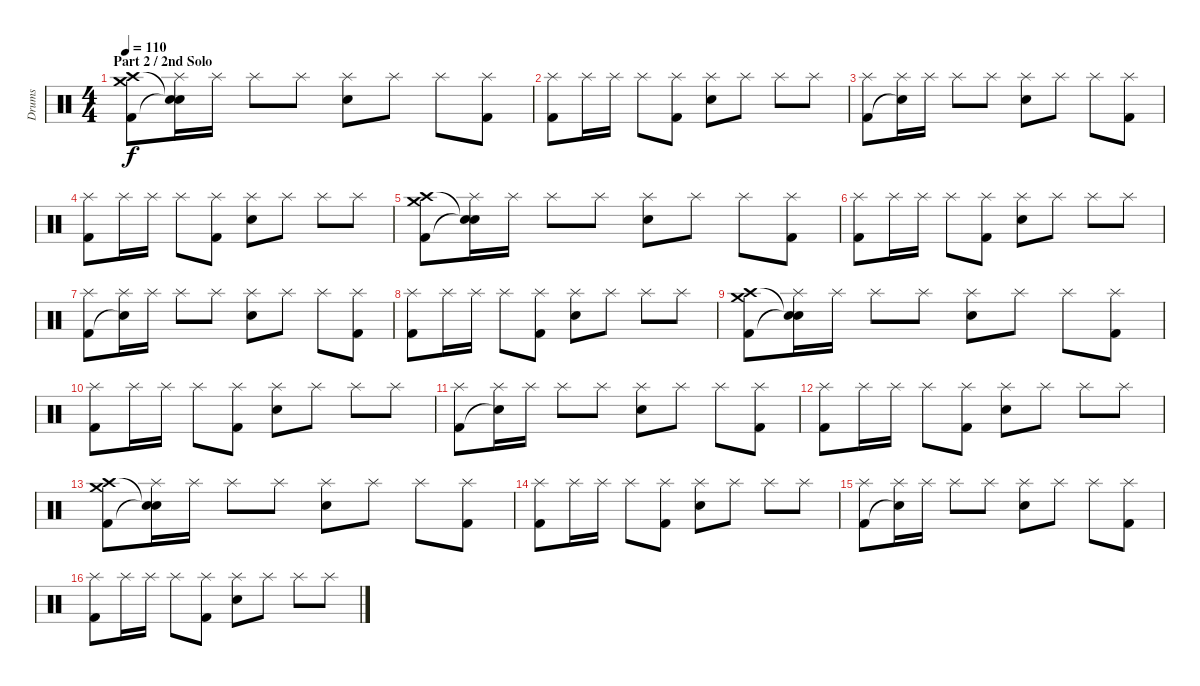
\track ("Drums" "Drums") {instrument percussion}
\staff {score}
\articulation defaults
\ts (4 4)
\section ("" "Part 2 / 2nd Solo")
\tempo 110
\clef neutral
\ks c
("Crash medium (hit)" "Crash high (hit)" "Kick (hit) 2").8{dy f} ("Splash (hit)" "Snare (hit)"{t} "Snare (hit)"{t}).16 "Splash (hit)".16 "Splash (hit)".8 "Splash (hit)".8 ("Splash (hit)" "Snare (hit) 2").8 "Splash (hit)".8 "Splash (hit)".8 ("Splash (hit)" "Kick (hit) 2").8 |
("Splash (hit)" "Kick (hit) 2").8 "Splash (hit)".16 "Splash (hit)".16 "Splash (hit)".8 ("Splash (hit)" "Kick (hit) 2").8 ("Splash (hit)" "Snare (hit) 2").8 "Splash (hit)".8 "Splash (hit)".8 "Splash (hit)".8 |
("Splash (hit)" "Kick (hit) 2").8 ("Splash (hit)" "Snare (hit)"{t}).16 "Splash (hit)".16 "Splash (hit)".8 "Splash (hit)".8 ("Splash (hit)" "Snare (hit) 2").8 "Splash (hit)".8 "Splash (hit)".8 ("Splash (hit)" "Kick (hit) 2").8 |
("Splash (hit)" "Kick (hit) 2").8 "Splash (hit)".16 "Splash (hit)".16 "Splash (hit)".8 ("Splash (hit)" "Kick (hit) 2").8 ("Splash (hit)" "Snare (hit) 2").8 "Splash (hit)".8 "Splash (hit)".8 "Splash (hit)".8 |
("Crash medium (hit)" "Crash high (hit)" "Kick (hit) 2").8 ("Splash (hit)" "Snare (hit)"{t} "Snare (hit)"{t}).16 "Splash (hit)".16 "Splash (hit)".8 "Splash (hit)".8 ("Splash (hit)" "Snare (hit) 2").8 "Splash (hit)".8 "Splash (hit)".8 ("Splash (hit)" "Kick (hit) 2").8 |
("Splash (hit)" "Kick (hit) 2").8 "Splash (hit)".16 "Splash (hit)".16 "Splash (hit)".8 ("Splash (hit)" "Kick (hit) 2").8 ("Splash (hit)" "Snare (hit) 2").8 "Splash (hit)".8 "Splash (hit)".8 "Splash (hit)".8 |
("Splash (hit)" "Kick (hit) 2").8 ("Splash (hit)" "Snare (hit)"{t}).16 "Splash (hit)".16 "Splash (hit)".8 "Splash (hit)".8 ("Splash (hit)" "Snare (hit) 2").8 "Splash (hit)".8 "Splash (hit)".8 ("Splash (hit)" "Kick (hit) 2").8 |
("Splash (hit)" "Kick (hit) 2").8 "Splash (hit)".16 "Splash (hit)".16 "Splash (hit)".8 ("Splash (hit)" "Kick (hit) 2").8 ("Splash (hit)" "Snare (hit) 2").8 "Splash (hit)".8 "Splash (hit)".8 "Splash (hit)".8 |
("Crash medium (hit)" "Crash high (hit)" "Kick (hit) 2").8 ("Splash (hit)" "Snare (hit)"{t} "Snare (hit)"{t}).16 "Splash (hit)".16 "Splash (hit)".8 "Splash (hit)".8 ("Splash (hit)" "Snare (hit) 2").8 "Splash (hit)".8 "Splash (hit)".8 ("Splash (hit)" "Kick (hit) 2").8 |
("Splash (hit)" "Kick (hit) 2").8 "Splash (hit)".16 "Splash (hit)".16 "Splash (hit)".8 ("Splash (hit)" "Kick (hit) 2").8 ("Splash (hit)" "Snare (hit) 2").8 "Splash (hit)".8 "Splash (hit)".8 "Splash (hit)".8 |
("Splash (hit)" "Kick (hit) 2").8 ("Splash (hit)" "Snare (hit)"{t}).16 "Splash (hit)".16 "Splash (hit)".8 "Splash (hit)".8 ("Splash (hit)" "Snare (hit) 2").8 "Splash (hit)".8 "Splash (hit)".8 ("Splash (hit)" "Kick (hit) 2").8 |
("Splash (hit)" "Kick (hit) 2").8 "Splash (hit)".16 "Splash (hit)".16 "Splash (hit)".8 ("Splash (hit)" "Kick (hit) 2").8 ("Splash (hit)" "Snare (hit) 2").8 "Splash (hit)".8 "Splash (hit)".8 "Splash (hit)".8 |
("Crash medium (hit)" "Crash high (hit)" "Kick (hit) 2").8 ("Splash (hit)" "Snare (hit)"{t} "Snare (hit)"{t}).16 "Splash (hit)".16 "Splash (hit)".8 "Splash (hit)".8 ("Splash (hit)" "Snare (hit) 2").8 "Splash (hit)".8 "Splash (hit)".8 ("Splash (hit)" "Kick (hit) 2").8 |
("Splash (hit)" "Kick (hit) 2").8 "Splash (hit)".16 "Splash (hit)".16 "Splash (hit)".8 ("Splash (hit)" "Kick (hit) 2").8 ("Splash (hit)" "Snare (hit) 2").8 "Splash (hit)".8 "Splash (hit)".8 "Splash (hit)".8 |
("Splash (hit)" "Kick (hit) 2").8 ("Splash (hit)" "Snare (hit)"{t}).16 "Splash (hit)".16 "Splash (hit)".8 "Splash (hit)".8 ("Splash (hit)" "Snare (hit) 2").8 "Splash (hit)".8 "Splash (hit)".8 ("Splash (hit)" "Kick (hit) 2").8 |
("Splash (hit)" "Kick (hit) 2").8 "Splash (hit)".16 "Splash (hit)".16 "Splash (hit)".8 ("Splash (hit)" "Kick (hit) 2").8 ("Splash (hit)" "Snare (hit) 2").8 "Splash (hit)".8 "Splash (hit)".8 "Splash (hit)".8
